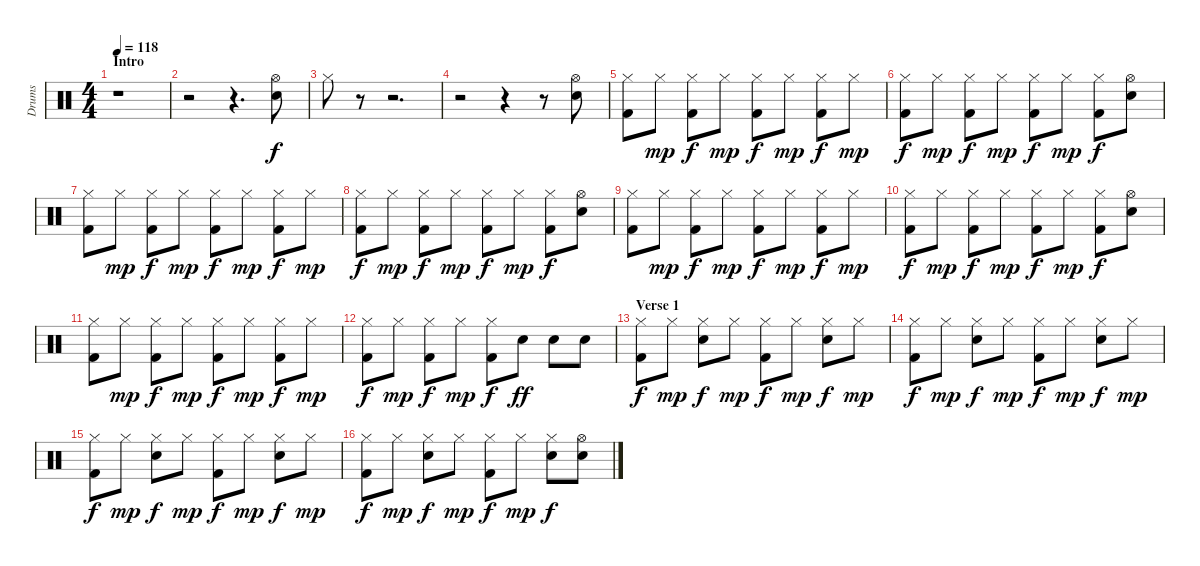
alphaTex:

\track ("Drums" "Drums") {instrument percussion}
\staff {score}
\articulation defaults
\ts (4 4)
\section ("" "Intro")
\tempo 118
\clef neutral
\ks c
r.1{dy f} |
r.2 r.4{d} ("Hi-Hat (open)" "Snare (hit) 2").8 |
"Hi-Hat (closed)".8 r.8 r.2{d} |
r.2 r.4 r.8 ("Hi-Hat (open)" "Snare (hit) 2").8 |
("Hi-Hat (closed)" "Kick (hit) 2").8 "Hi-Hat (closed)".8{dy mp} ("Hi-Hat (closed)" "Kick (hit) 2").8{dy f} "Hi-Hat (closed)".8{dy mp} ("Hi-Hat (closed)" "Kick (hit) 2").8{dy f} "Hi-Hat (closed)".8{dy mp} ("Hi-Hat (closed)" "Kick (hit) 2").8{dy f} "Hi-Hat (closed)".8{dy mp} |
("Hi-Hat (closed)" "Kick (hit) 2").8{dy f} "Hi-Hat (closed)".8{dy mp} ("Hi-Hat (closed)" "Kick (hit) 2").8{dy f} "Hi-Hat (closed)".8{dy mp} ("Hi-Hat (closed)" "Kick (hit) 2").8{dy f} "Hi-Hat (closed)".8{dy mp} ("Hi-Hat (closed)" "Kick (hit) 2").8{dy f} ("Hi-Hat (open)" "Snare (hit) 2").8 |
("Hi-Hat (closed)" "Kick (hit) 2").8 "Hi-Hat (closed)".8{dy mp} ("Hi-Hat (closed)" "Kick (hit) 2").8{dy f} "Hi-Hat (closed)".8{dy mp} ("Hi-Hat (closed)" "Kick (hit) 2").8{dy f} "Hi-Hat (closed)".8{dy mp} ("Hi-Hat (closed)" "Kick (hit) 2").8{dy f} "Hi-Hat (closed)".8{dy mp} |
("Hi-Hat (closed)" "Kick (hit) 2").8{dy f} "Hi-Hat (closed)".8{dy mp} ("Hi-Hat (closed)" "Kick (hit) 2").8{dy f} "Hi-Hat (closed)".8{dy mp} ("Hi-Hat (closed)" "Kick (hit) 2").8{dy f} "Hi-Hat (closed)".8{dy mp} ("Hi-Hat (closed)" "Kick (hit) 2").8{dy f} ("Hi-Hat (open)" "Snare (hit) 2").8 |
("Hi-Hat (closed)" "Kick (hit) 2").8 "Hi-Hat (closed)".8{dy mp} ("Hi-Hat (closed)" "Kick (hit) 2").8{dy f} "Hi-Hat (closed)".8{dy mp} ("Hi-Hat (closed)" "Kick (hit) 2").8{dy f} "Hi-Hat (closed)".8{dy mp} ("Hi-Hat (closed)" "Kick (hit) 2").8{dy f} "Hi-Hat (closed)".8{dy mp} |
("Hi-Hat (closed)" "Kick (hit) 2").8{dy f} "Hi-Hat (closed)".8{dy mp} ("Hi-Hat (closed)" "Kick (hit) 2").8{dy f} "Hi-Hat (closed)".8{dy mp} ("Hi-Hat (closed)" "Kick (hit) 2").8{dy f} "Hi-Hat (closed)".8{dy mp} ("Hi-Hat (closed)" "Kick (hit) 2").8{dy f} ("Hi-Hat (open)" "Snare (hit) 2").8 |
("Hi-Hat (closed)" "Kick (hit) 2").8 "Hi-Hat (closed)".8{dy mp} ("Hi-Hat (closed)" "Kick (hit) 2").8{dy f} "Hi-Hat (closed)".8{dy mp} ("Hi-Hat (closed)" "Kick (hit) 2").8{dy f} "Hi-Hat (closed)".8{dy mp} ("Hi-Hat (closed)" "Kick (hit) 2").8{dy f} "Hi-Hat (closed)".8{dy mp} |
("Hi-Hat (closed)" "Kick (hit) 2").8{dy f} "Hi-Hat (closed)".8{dy mp} ("Hi-Hat (closed)" "Kick (hit) 2").8{dy f} "Hi-Hat (closed)".8{dy mp} ("Hi-Hat (closed)" "Kick (hit) 2").8{dy f} "Hand Clap (hit)".8{dy ff} "Hand Clap (hit)".8 "Hand Clap (hit)".8 |
\section ("" "Verse 1")
("Hi-Hat (closed)" "Kick (hit) 2").8{dy f} "Hi-Hat (closed)".8{dy mp} ("Hi-Hat (closed)" "Snare (hit) 2").8{dy f} "Hi-Hat (closed)".8{dy mp} ("Hi-Hat (closed)" "Kick (hit) 2").8{dy f} "Hi-Hat (closed)".8{dy mp} ("Hi-Hat (closed)" "Snare (hit) 2").8{dy f} "Hi-Hat (closed)".8{dy mp} |
("Hi-Hat (closed)" "Kick (hit) 2").8{dy f} "Hi-Hat (closed)".8{dy mp} ("Hi-Hat (closed)" "Snare (hit) 2").8{dy f} "Hi-Hat (closed)".8{dy mp} ("Hi-Hat (closed)" "Kick (hit) 2").8{dy f} "Hi-Hat (closed)".8{dy mp} ("Hi-Hat (closed)" "Snare (hit) 2").8{dy f} "Hi-Hat (closed)".8{dy mp} |
("Hi-Hat (closed)" "Kick (hit) 2").8{dy f} "Hi-Hat (closed)".8{dy mp} ("Hi-Hat (closed)" "Snare (hit) 2").8{dy f} "Hi-Hat (closed)".8{dy mp} ("Hi-Hat (closed)" "Kick (hit) 2").8{dy f} "Hi-Hat (closed)".8{dy mp} ("Hi-Hat (closed)" "Snare (hit) 2").8{dy f} "Hi-Hat (closed)".8{dy mp} |
("Hi-Hat (closed)" "Kick (hit) 2").8{dy f} "Hi-Hat (closed)".8{dy mp} ("Hi-Hat (closed)" "Snare (hit) 2").8{dy f} "Hi-Hat (closed)".8{dy mp} ("Hi-Hat (closed)" "Kick (hit) 2").8{dy f} "Hi-Hat (closed)".8{dy mp} ("Hi-Hat (closed)" "Snare (hit) 2").8{dy f} ("Hi-Hat (open)" "Snare (hit) 2").8
